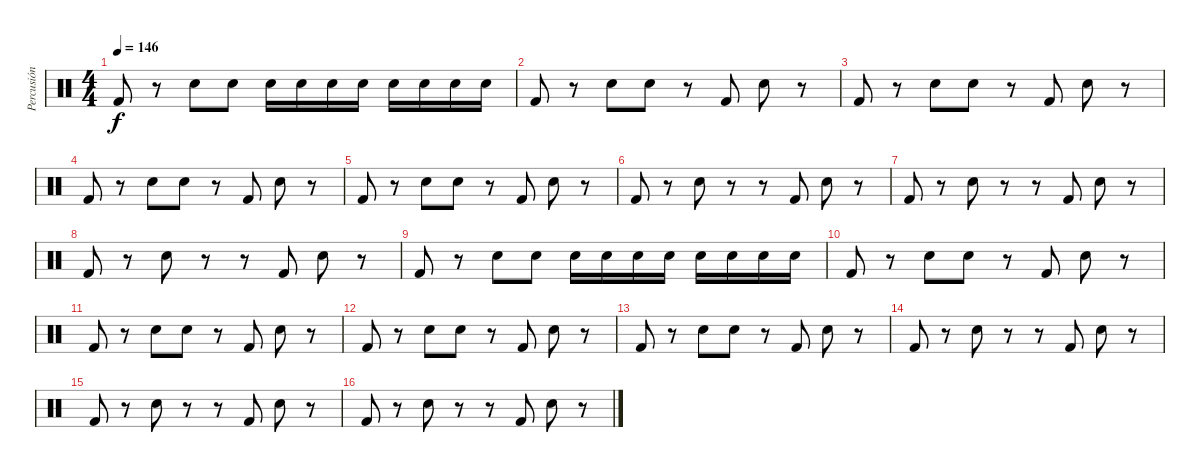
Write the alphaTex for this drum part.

\track ("Percusión" "Percusión") {instrument percussion}
\staff {score}
\articulation defaults
\ts (4 4)
\tempo 146
\clef neutral
\ks c "Kick (hit) 2".8{dy f}
r.8 "Snare (hit) 2".8 "Snare (hit) 2".8 "Snare (hit) 2".16 "Snare (hit) 2".16 "Snare (hit) 2".16 "Snare (hit) 2".16 "Snare (hit) 2".16 "Snare (hit) 2".16 "Snare (hit) 2".16 "Snare (hit) 2".16 |
"Kick (hit) 2".8 r.8 "Snare (hit) 2".8 "Snare (hit) 2".8 r.8 "Kick (hit) 2".8 "Snare (hit) 2".8 r.8 |
"Kick (hit) 2".8 r.8 "Snare (hit) 2".8 "Snare (hit) 2".8 r.8 "Kick (hit) 2".8 "Snare (hit) 2".8 r.8 |
"Kick (hit) 2".8 r.8 "Snare (hit) 2".8 "Snare (hit) 2".8 r.8 "Kick (hit) 2".8 "Snare (hit) 2".8 r.8 |
"Kick (hit) 2".8 r.8 "Snare (hit) 2".8 "Snare (hit) 2".8 r.8 "Kick (hit) 2".8 "Snare (hit) 2".8 r.8 |
"Kick (hit) 2".8 r.8 "Snare (hit) 2".8 r.8 r.8 "Kick (hit) 2".8 "Snare (hit) 2".8 r.8 |
"Kick (hit) 2".8 r.8 "Snare (hit) 2".8 r.8 r.8 "Kick (hit) 2".8 "Snare (hit) 2".8 r.8 |
"Kick (hit) 2".8 r.8 "Snare (hit) 2".8 r.8 r.8 "Kick (hit) 2".8 "Snare (hit) 2".8 r.8 |
"Kick (hit) 2".8 r.8 "Snare (hit) 2".8 "Snare (hit) 2".8 "Snare (hit) 2".16 "Snare (hit) 2".16 "Snare (hit) 2".16 "Snare (hit) 2".16 "Snare (hit) 2".16 "Snare (hit) 2".16 "Snare (hit) 2".16 "Snare (hit) 2".16 |
"Kick (hit) 2".8 r.8 "Snare (hit) 2".8 "Snare (hit) 2".8 r.8 "Kick (hit) 2".8 "Snare (hit) 2".8 r.8 |
"Kick (hit) 2".8 r.8 "Snare (hit) 2".8 "Snare (hit) 2".8 r.8 "Kick (hit) 2".8 "Snare (hit) 2".8 r.8 |
"Kick (hit) 2".8 r.8 "Snare (hit) 2".8 "Snare (hit) 2".8 r.8 "Kick (hit) 2".8 "Snare (hit) 2".8 r.8 |
"Kick (hit) 2".8 r.8 "Snare (hit) 2".8 "Snare (hit) 2".8 r.8 "Kick (hit) 2".8 "Snare (hit) 2".8 r.8 |
"Kick (hit) 2".8 r.8 "Snare (hit) 2".8 r.8 r.8 "Kick (hit) 2".8 "Snare (hit) 2".8 r.8 |
"Kick (hit) 2".8 r.8 "Snare (hit) 2".8 r.8 r.8 "Kick (hit) 2".8 "Snare (hit) 2".8 r.8 |
"Kick (hit) 2".8 r.8 "Snare (hit) 2".8 r.8 r.8 "Kick (hit) 2".8 "Snare (hit) 2".8 r.8
